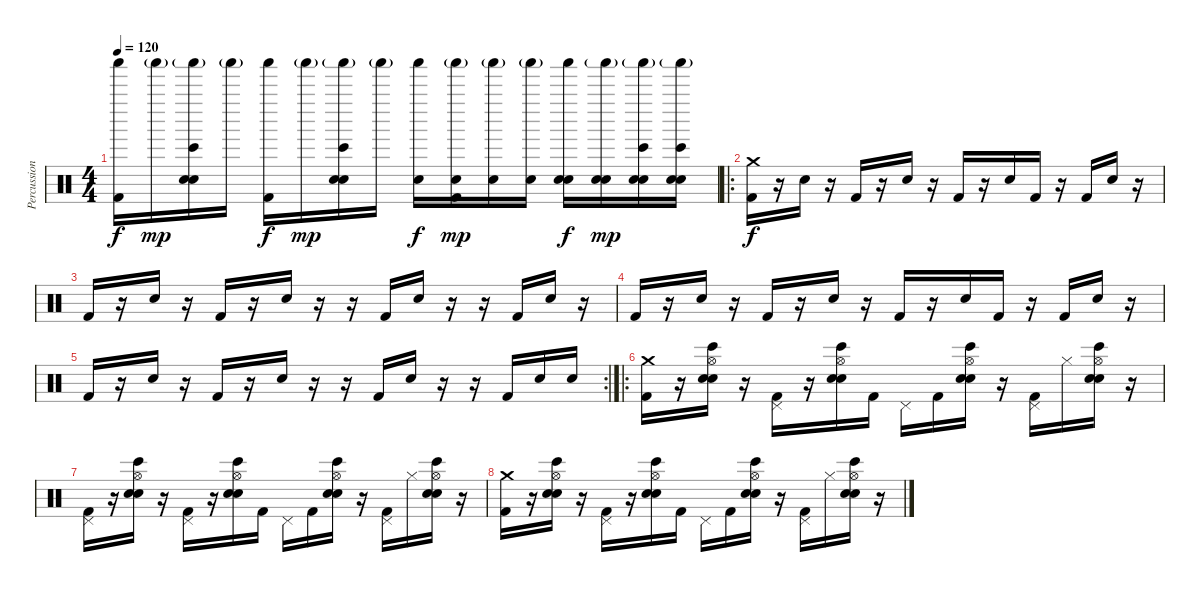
\track ("Percussion" "Percussion") {instrument percussion}
\staff {score}
\articulation defaults
\ts (4 4)
\tempo 120
\clef neutral
\ks c
("Shaker (hit)" "Kick (hit) 2").16{dy f} "Shaker (hit)"{g}.16{dy mp} ("Shaker (hit)"{g} "Electric Snare (hit)" "Snare (hit) 2" "Bongo High (hit)").16 "Shaker (hit)"{g}.16 ("Shaker (hit)" "Kick (hit) 2").16{dy f} "Shaker (hit)"{g}.16{dy mp} ("Shaker (hit)"{g} "Electric Snare (hit)" "Snare (hit) 2" "Bongo High (hit)").16 "Shaker (hit)"{g}.16 ("Shaker (hit)" "Electric Snare (hit)").16{dy f} ("Shaker (hit)"{g} "Kick (hit) 2" "Electric Snare (hit)").16{dy mp} ("Shaker (hit)"{g} "Electric Snare (hit)").16 ("Shaker (hit)"{g} "Electric Snare (hit)").16 ("Shaker (hit)" "Snare (hit) 2" "Electric Snare (hit)").16{dy f} ("Shaker (hit)"{g} "Snare (hit) 2" "Electric Snare (hit)").16{dy mp} ("Shaker (hit)"{g} "Bongo High (hit)" "Snare (hit) 2" "Electric Snare (hit)").16 ("Shaker (hit)"{g} "Bongo High (hit)" "Snare (hit) 2" "Electric Snare (hit)").16 |
\ro
("Crash medium (hit)" "Kick (hit) 2").16{dy f} r.16 "Electric Snare (hit)".16 r.16 "Kick (hit) 2".16 r.16 "Electric Snare (hit)".16 r.16 "Kick (hit) 2".16 r.16 "Electric Snare (hit)".16 "Kick (hit) 2".16 r.16 "Kick (hit) 2".16 "Electric Snare (hit)".16 r.16 |
"Kick (hit) 2".16 r.16 "Electric Snare (hit)".16 r.16 "Kick (hit) 2".16 r.16 "Electric Snare (hit)".16 r.16 r.16 "Kick (hit) 2".16 "Electric Snare (hit)".16 r.16 r.16 "Kick (hit) 2".16 "Electric Snare (hit)".16 r.16 |
"Kick (hit) 2".16 r.16 "Electric Snare (hit)".16 r.16 "Kick (hit) 2".16 r.16 "Electric Snare (hit)".16 r.16 "Kick (hit) 2".16 r.16 "Electric Snare (hit)".16 "Kick (hit) 2".16 r.16 "Kick (hit) 2".16 "Electric Snare (hit)".16 r.16 |
\rc 2 "Kick (hit) 2".16
r.16 "Electric Snare (hit)".16 r.16 "Kick (hit) 2".16 r.16 "Electric Snare (hit)".16 r.16 r.16 "Kick (hit) 2".16 "Electric Snare (hit)".16 r.16 r.16 "Kick (hit) 2".16 "Electric Snare (hit)".16 "Electric Snare (hit)".16 |
\ro
("Crash medium (hit)" "Kick (hit) 2").16 r.16 ("Hi-Hat (open)" "Electric Snare (hit)" "Snare (hit) 2" "Bongo High (hit)").16 r.16 ("Pedal Hi-Hat (hit)" "Kick (hit) 2").16 r.16 ("Hi-Hat (open)" "Electric Snare (hit)" "Snare (hit) 2" "Bongo High (hit)").16 "Kick (hit) 2".16 "Pedal Hi-Hat (hit)".16 "Kick (hit) 2".16 ("Hi-Hat (open)" "Electric Snare (hit)" "Snare (hit) 2" "Bongo High (hit)").16 r.16 ("Pedal Hi-Hat (hit)" "Kick (hit) 2").16 "Hi-Hat (closed)".16 ("Hi-Hat (open)" "Electric Snare (hit)" "Snare (hit) 2" "Bongo High (hit)").16 r.16 |
("Pedal Hi-Hat (hit)" "Kick (hit) 2").16 r.16 ("Hi-Hat (open)" "Electric Snare (hit)" "Snare (hit) 2" "Bongo High (hit)").16 r.16 ("Pedal Hi-Hat (hit)" "Kick (hit) 2").16 r.16 ("Hi-Hat (open)" "Electric Snare (hit)" "Snare (hit) 2" "Bongo High (hit)").16 "Kick (hit) 2".16 "Pedal Hi-Hat (hit)".16 "Kick (hit) 2".16 ("Hi-Hat (open)" "Electric Snare (hit)" "Snare (hit) 2" "Bongo High (hit)").16 r.16 ("Pedal Hi-Hat (hit)" "Kick (hit) 2").16 "Hi-Hat (closed)".16 ("Hi-Hat (open)" "Electric Snare (hit)" "Snare (hit) 2" "Bongo High (hit)").16 r.16 |
("Crash medium (hit)" "Kick (hit) 2").16 r.16 ("Hi-Hat (open)" "Electric Snare (hit)" "Snare (hit) 2" "Bongo High (hit)").16 r.16 ("Pedal Hi-Hat (hit)" "Kick (hit) 2").16 r.16 ("Hi-Hat (open)" "Electric Snare (hit)" "Snare (hit) 2" "Bongo High (hit)").16 "Kick (hit) 2".16 "Pedal Hi-Hat (hit)".16 "Kick (hit) 2".16 ("Hi-Hat (open)" "Electric Snare (hit)" "Snare (hit) 2" "Bongo High (hit)").16 r.16 ("Pedal Hi-Hat (hit)" "Kick (hit) 2").16 "Hi-Hat (closed)".16 ("Hi-Hat (open)" "Electric Snare (hit)" "Snare (hit) 2" "Bongo High (hit)").16 r.16
